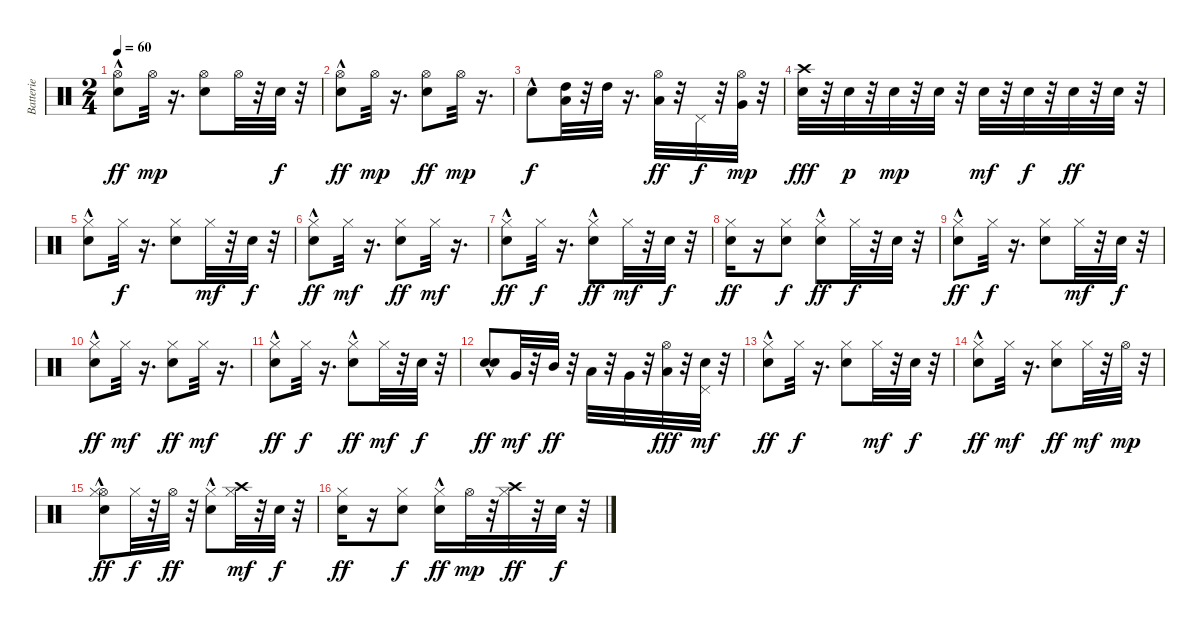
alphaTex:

\track ("Batterie" "Batterie") {instrument percussion}
\staff {score}
\articulation defaults
\ts (2 4)
\tempo 60
\clef neutral
\ks c
("Hi-Hat (open)" "Snare (hit)"{hac}).8{dy ff} "Hi-Hat (open)".32{dy mp} r.16{d} ("Hi-Hat (open)" "Electric Snare (hit)").8 "Hi-Hat (open)".32 r.32 "Snare (hit)".32{dy f} r.32 |
("Hi-Hat (open)" "Snare (hit)"{hac}).8{dy ff} "Hi-Hat (open)".32{dy mp} r.16{d} ("Hi-Hat (open)" "Electric Snare (hit)").8{dy ff} "Hi-Hat (open)".32{dy mp} r.16{d} |
"Snare (hit)"{hac}.8{dy f} ("High Tom (hit)" "Low Tom (hit)").32 r.32 "High Tom (hit)".32 r.16{d} ("Hi-Hat (open)" "Low Tom (hit)").32{dy ff} r.32 "Pedal Hi-Hat (hit)".32{dy f} r.32 ("Hi-Hat (open)" "Very Low Tom (hit)").32{dy mp} r.32 |
("Snare (hit)" "Crash high (hit)").32{dy fff} r.32 "Electric Snare (hit)".32{dy p} r.32 "Electric Snare (hit)".32{dy mp} r.32 "Electric Snare (hit)".32 r.32 "Electric Snare (hit)".32{dy mf} r.32 "Electric Snare (hit)".32{dy f} r.32 "Electric Snare (hit)".32{dy ff} r.32 "Electric Snare (hit)".32 r.32 |
("Hi-Hat (closed)" "Snare (hit)"{hac}).8 "Hi-Hat (closed)".32{dy f} r.16{d} ("Hi-Hat (closed)" "Electric Snare (hit)").8 "Hi-Hat (closed)".32{dy mf} r.32 "Snare (hit)".32{dy f} r.32 |
("Hi-Hat (closed)" "Snare (hit)"{hac}).8{dy ff} "Hi-Hat (closed)".32{dy mf} r.16{d} ("Hi-Hat (closed)" "Electric Snare (hit)").8{dy ff} "Hi-Hat (closed)".32{dy mf} r.16{d} |
("Hi-Hat (closed)" "Snare (hit)"{hac}).8{dy ff} "Hi-Hat (closed)".32{dy f} r.16{d} ("Hi-Hat (closed)" "Electric Snare (hit)"{hac}).8{dy ff} "Hi-Hat (closed)".32{dy mf} r.32 "Snare (hit)".32{dy f} r.32 |
("Snare (hit)" "Hi-Hat (closed)").16{dy ff} r.16 ("Snare (hit)" "Hi-Hat (closed)").8{dy f} ("Hi-Hat (closed)" "Electric Snare (hit)"{hac}).8{dy ff} "Hi-Hat (closed)".32{dy f} r.32 "Snare (hit)".32 r.32 |
("Hi-Hat (closed)" "Snare (hit)"{hac}).8{dy ff} "Hi-Hat (closed)".32{dy f} r.16{d} ("Hi-Hat (closed)" "Electric Snare (hit)").8 "Hi-Hat (closed)".32{dy mf} r.32 "Snare (hit)".32{dy f} r.32 |
("Hi-Hat (closed)" "Snare (hit)"{hac}).8{dy ff} "Hi-Hat (closed)".32{dy mf} r.16{d} ("Hi-Hat (closed)" "Electric Snare (hit)").8{dy ff} "Hi-Hat (closed)".32{dy mf} r.16{d} |
("Hi-Hat (closed)" "Snare (hit)"{hac}).8{dy ff} "Hi-Hat (closed)".32{dy f} r.16{d} ("Hi-Hat (closed)" "Electric Snare (hit)"{hac}).8{dy ff} "Hi-Hat (closed)".32{dy mf} r.32 "Snare (hit)".32{dy f} r.32 |
("Snare (hit)" "Snare (hit)"{hac}).8{dy ff} "Very Low Tom (hit)".32{dy mf} r.32 "Mid Tom (hit)".32{dy ff} r.32 "Low Tom (hit)".32 r.32 "Very Low Tom (hit)".32 r.32 ("Low Floor Tom (hit)" "Hi-Hat (open)").32{dy fff} r.32 ("Electric Snare (hit)" "Pedal Hi-Hat (hit)").32{dy mf} r.32 |
("Hi-Hat (closed)" "Snare (hit)"{hac}).8{dy ff} "Hi-Hat (closed)".32{dy f} r.16{d} ("Hi-Hat (closed)" "Electric Snare (hit)").8 "Hi-Hat (closed)".32{dy mf} r.32 "Snare (hit)".32{dy f} r.32 |
("Hi-Hat (closed)" "Snare (hit)"{hac}).8{dy ff} "Hi-Hat (closed)".32{dy mf} r.16{d} ("Hi-Hat (closed)" "Electric Snare (hit)").8{dy ff} "Hi-Hat (closed)".32{dy mf} r.32 "Hi-Hat (open)".32{dy mp} r.32 |
("Hi-Hat (open)" "Hi-Hat (closed)" "Snare (hit)"{hac}).8{dy ff} "Hi-Hat (closed)".32{dy f} r.32 "Hi-Hat (open)".32{dy ff} r.32 ("Hi-Hat (closed)" "Electric Snare (hit)"{hac}).8 ("Crash high (hit)" "Hi-Hat (closed)").32{dy mf} r.32 "Snare (hit)".32{dy f} r.32 |
("Snare (hit)" "Hi-Hat (closed)").16{dy ff} r.16 ("Snare (hit)" "Hi-Hat (closed)").8{dy f} ("Hi-Hat (closed)" "Electric Snare (hit)"{hac}).16{dy ff} "Hi-Hat (open)".32{dy mp} r.32 ("Crash high (hit)" "Hi-Hat (closed)").32{dy ff} r.32 "Snare (hit)".32{dy f} r.32
